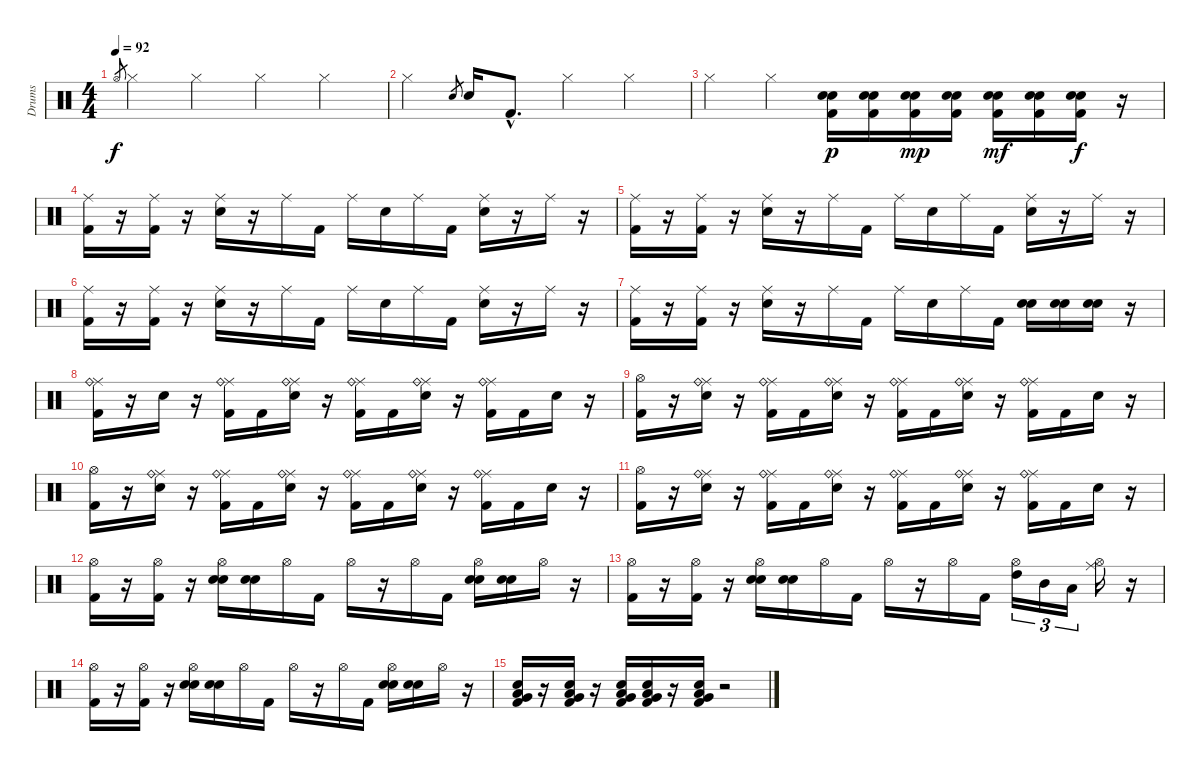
\track ("Drums" "Drums") {instrument percussion}
\staff {score}
\articulation defaults
\ts (4 4)
\tempo 92
\clef neutral
\ks c "Hi-Hat (open)".8{gr dy f} "Hi-Hat (closed)".4 "Hi-Hat (closed)".4 "Hi-Hat (closed)".4 "Hi-Hat (closed)".4
|
"Hi-Hat (closed)".4 "Snare (hit) 2".8{gr} "Snare (hit) 2".16 "Kick (hit) 2"{hac}.8{d} "Hi-Hat (closed)".4 "Hi-Hat (closed)".4 |
"Hi-Hat (closed)".4 "Hi-Hat (closed)".4 ("Snare (hit) 2" "Electric Snare (hit)" "Kick (hit) 2").16{dy p} ("Snare (hit) 2" "Electric Snare (hit)" "Kick (hit) 2").16 ("Snare (hit) 2" "Electric Snare (hit)" "Kick (hit) 2").16{dy mp} ("Snare (hit) 2" "Electric Snare (hit)" "Kick (hit) 2").16 ("Snare (hit) 2" "Electric Snare (hit)" "Kick (hit) 2").16{dy mf} ("Snare (hit) 2" "Electric Snare (hit)" "Kick (hit) 2").16 ("Snare (hit) 2" "Electric Snare (hit)" "Kick (hit) 2").16{dy f} r.16 |
("Ride (middle)" "Kick (hit) 2").16 r.16 ("Ride (middle)" "Kick (hit) 2").16 r.16 ("Ride (middle)" "Electric Snare (hit)").16 r.16 "Ride (middle)".16 "Kick (hit) 2".16 "Ride (middle)".16 "Electric Snare (hit)".16 "Ride (middle)".16 "Kick (hit) 2".16 ("Ride (middle)" "Electric Snare (hit)").16 r.16 "Ride (middle)".16 r.16 |
("Ride (middle)" "Kick (hit) 2").16 r.16 ("Ride (middle)" "Kick (hit) 2").16 r.16 ("Ride (middle)" "Electric Snare (hit)").16 r.16 "Ride (middle)".16 "Kick (hit) 2".16 "Ride (middle)".16 "Electric Snare (hit)".16 "Ride (middle)".16 "Kick (hit) 2".16 ("Ride (middle)" "Electric Snare (hit)").16 r.16 "Ride (middle)".16 r.16 |
("Ride (middle)" "Kick (hit) 2").16 r.16 ("Ride (middle)" "Kick (hit) 2").16 r.16 ("Ride (middle)" "Electric Snare (hit)").16 r.16 "Ride (middle)".16 "Kick (hit) 2".16 "Ride (middle)".16 "Electric Snare (hit)".16 "Ride (middle)".16 "Kick (hit) 2".16 ("Ride (middle)" "Electric Snare (hit)").16 r.16 "Ride (middle)".16 r.16 |
("Ride (middle)" "Kick (hit) 2").16 r.16 ("Ride (middle)" "Kick (hit) 2").16 r.16 ("Ride (middle)" "Electric Snare (hit)").16 r.16 "Ride (middle)".16 "Kick (hit) 2".16 "Ride (middle)".16 "Electric Snare (hit)".16 "Ride (middle)".16 "Kick (hit) 2".16 ("Snare (hit) 2" "Electric Snare (hit)").16 ("Snare (hit) 2" "Electric Snare (hit)").16 ("Snare (hit) 2" "Electric Snare (hit)").16 r.16 |
("Ride (middle)" "Ride (bell)" "Kick (hit) 2").16 r.16 "Electric Snare (hit)".16 r.16 ("Ride (middle)" "Ride (bell)" "Kick (hit) 2").16 "Kick (hit) 2".16 ("Ride (middle)" "Ride (bell)" "Electric Snare (hit)").16 r.16 ("Ride (middle)" "Ride (bell)" "Kick (hit) 2").16 "Kick (hit) 2".16 ("Ride (middle)" "Ride (bell)" "Electric Snare (hit)").16 r.16 ("Ride (middle)" "Ride (bell)" "Kick (hit) 2").16 "Kick (hit) 2".16 "Electric Snare (hit)".16 r.16 |
("Hi-Hat (open)" "Kick (hit) 2").16 r.16 ("Ride (middle)" "Ride (bell)" "Electric Snare (hit)").16 r.16 ("Ride (middle)" "Ride (bell)" "Kick (hit) 2").16 "Kick (hit) 2".16 ("Ride (middle)" "Ride (bell)" "Electric Snare (hit)").16 r.16 ("Ride (middle)" "Ride (bell)" "Kick (hit) 2").16 "Kick (hit) 2".16 ("Ride (middle)" "Ride (bell)" "Electric Snare (hit)").16 r.16 ("Ride (middle)" "Ride (bell)" "Kick (hit) 2").16 "Kick (hit) 2".16 "Electric Snare (hit)".16 r.16 |
("Hi-Hat (open)" "Kick (hit) 2").16 r.16 ("Ride (middle)" "Ride (bell)" "Electric Snare (hit)").16 r.16 ("Ride (middle)" "Ride (bell)" "Kick (hit) 2").16 "Kick (hit) 2".16 ("Ride (middle)" "Ride (bell)" "Electric Snare (hit)").16 r.16 ("Ride (middle)" "Ride (bell)" "Kick (hit) 2").16 "Kick (hit) 2".16 ("Ride (middle)" "Ride (bell)" "Electric Snare (hit)").16 r.16 ("Ride (middle)" "Ride (bell)" "Kick (hit) 2").16 "Kick (hit) 2".16 "Electric Snare (hit)".16 r.16 |
("Hi-Hat (open)" "Kick (hit) 2").16 r.16 ("Ride (middle)" "Ride (bell)" "Electric Snare (hit)").16 r.16 ("Ride (middle)" "Ride (bell)" "Kick (hit) 2").16 "Kick (hit) 2".16 ("Ride (middle)" "Ride (bell)" "Electric Snare (hit)").16 r.16 ("Ride (middle)" "Ride (bell)" "Kick (hit) 2").16 "Kick (hit) 2".16 ("Ride (middle)" "Ride (bell)" "Electric Snare (hit)").16 r.16 ("Ride (middle)" "Ride (bell)" "Kick (hit) 2").16 "Kick (hit) 2".16 "Electric Snare (hit)".16 r.16 |
("Hi-Hat (open)" "Kick (hit) 2").16 r.16 ("Hi-Hat (open)" "Kick (hit) 2").16 r.16 ("Hi-Hat (open)" "Snare (hit) 2" "Electric Snare (hit)").16 ("Snare (hit) 2" "Electric Snare (hit)").16 "Hi-Hat (open)".16 "Kick (hit) 2".16 "Hi-Hat (open)".16 r.16 "Hi-Hat (open)".16 "Kick (hit) 2".16 ("Hi-Hat (open)" "Snare (hit) 2" "Electric Snare (hit)").16 ("Snare (hit) 2" "Electric Snare (hit)").16 "Hi-Hat (open)".16 r.16 |
("Hi-Hat (open)" "Kick (hit) 2").16 r.16 ("Hi-Hat (open)" "Kick (hit) 2").16 r.16 ("Hi-Hat (open)" "Snare (hit) 2" "Electric Snare (hit)").16 ("Snare (hit) 2" "Electric Snare (hit)").16 "Hi-Hat (open)".16 "Kick (hit) 2".16 "Hi-Hat (open)".16 r.16 "Hi-Hat (open)".16 "Kick (hit) 2".16 ("Hi-Hat (open)" "High Tom (hit)").16{tu (3 2)} "Mid Tom (hit)".16{tu (3 2)} "Low Tom (hit)".16{tu (3 2)} ("Ride (middle)" "Hi-Hat (open)").16 r.16 |
("Hi-Hat (open)" "Kick (hit) 2").16 r.16 ("Hi-Hat (open)" "Kick (hit) 2").16 r.16 ("Hi-Hat (open)" "Snare (hit) 2" "Electric Snare (hit)").16 ("Snare (hit) 2" "Electric Snare (hit)").16 "Hi-Hat (open)".16 "Kick (hit) 2".16 "Hi-Hat (open)".16 r.16 "Hi-Hat (open)".16 "Kick (hit) 2".16 ("Hi-Hat (open)" "Snare (hit) 2" "Electric Snare (hit)").16 ("Snare (hit) 2" "Electric Snare (hit)").16 "Hi-Hat (open)".16 r.16 |
("Very Low Tom (hit)" "Snare (hit) 2" "Low Tom (hit)" "Kick (hit) 2").16 r.16 ("Very Low Tom (hit)" "Snare (hit) 2" "Low Tom (hit)" "Kick (hit) 2").16 r.16 ("Very Low Tom (hit)" "Snare (hit) 2" "Low Tom (hit)" "Kick (hit) 2").16 ("Very Low Tom (hit)" "Snare (hit) 2" "Low Tom (hit)" "Kick (hit) 2").16 r.16 ("Very Low Tom (hit)" "Snare (hit) 2" "Low Tom (hit)" "Kick (hit) 2").16 r.2
